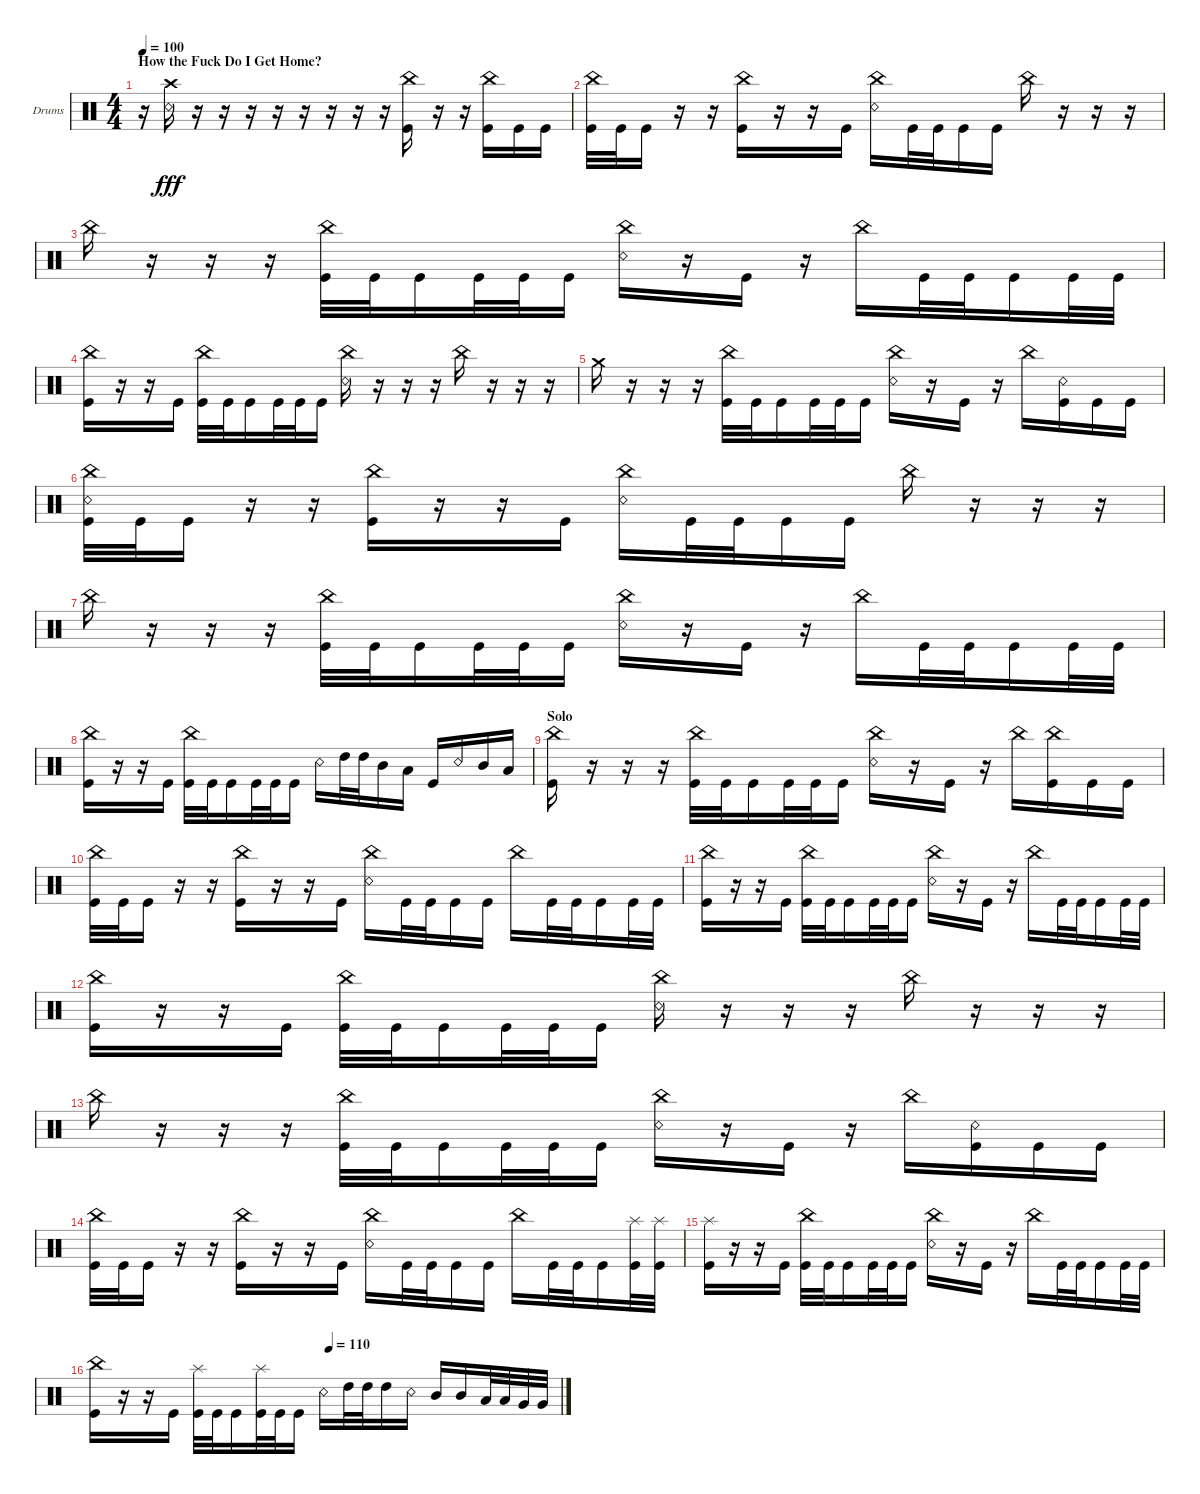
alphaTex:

\defaultSystemsLayout 4
\bracketExtendMode groupsimilarinstruments
\firstSystemTrackNameOrientation horizontal
\otherSystemsTrackNameOrientation horizontal
\track ("Chris Khoury" "Drums") {instrument percussion}
\staff {score}
\articulation defaults
\ts (4 4)
\section ("" "How the Fuck Do I Get Home?")
\tempo 100
\clef neutral
\ks c
r.16{dy fff} ("Snare (rim shot)" "Crash high (hit)").16 r.16 r.16 r.16 r.16 r.16 r.16 r.16 r.16 ("Kick (hit)" "China (hit)").16 r.16 r.16 ("Kick (hit)" "China (hit)").16 "Kick (hit)".16 "Kick (hit)".16 |
("Kick (hit)" "China (hit)").32 "Kick (hit)".32 "Kick (hit)".16 r.16 r.16 ("Kick (hit)" "China (hit)").16 r.16 r.16 "Kick (hit)".16 ("China (hit)" "Snare (rim shot)").16 "Kick (hit)".32 "Kick (hit)".32 "Kick (hit)".16 "Kick (hit)".16 "China (hit)".16 r.16 r.16 r.16 |
"China (hit)".16 r.16 r.16 r.16 ("China (hit)" "Kick (hit)").32 "Kick (hit)".32 "Kick (hit)".16 "Kick (hit)".32 "Kick (hit)".32 "Kick (hit)".16 ("China (hit)" "Snare (rim shot)").16 r.16 "Kick (hit)".16 r.16 "China (hit)".16 "Kick (hit)".32 "Kick (hit)".32 "Kick (hit)".16 "Kick (hit)".32 "Kick (hit)".32 |
("Kick (hit)" "China (hit)").16 r.16 r.16 "Kick (hit)".16 ("China (hit)" "Kick (hit)").32 "Kick (hit)".32 "Kick (hit)".16 "Kick (hit)".32 "Kick (hit)".32 "Kick (hit)".16 ("China (hit)" "Snare (rim shot)").16 r.16 r.16 r.16 "China (hit)".16 r.16 r.16 r.16 |
"Crash medium (hit)".16 r.16 r.16 r.16 ("China (hit)" "Kick (hit)").32 "Kick (hit)".32 "Kick (hit)".16 "Kick (hit)".32 "Kick (hit)".32 "Kick (hit)".16 ("China (hit)" "Snare (rim shot)").16 r.16 "Kick (hit)".16 r.16 "China (hit)".16 ("Snare (rim shot)" "Kick (hit)").16 "Kick (hit)".16 "Kick (hit)".16 |
("Snare (rim shot)" "China (hit)" "Kick (hit)").32 "Kick (hit)".32 "Kick (hit)".16 r.16 r.16 ("China (hit)" "Kick (hit)").16 r.16 r.16 "Kick (hit)".16 ("China (hit)" "Snare (rim shot)").16 "Kick (hit)".32 "Kick (hit)".32 "Kick (hit)".16 "Kick (hit)".16 "China (hit)".16 r.16 r.16 r.16 |
"China (hit)".16 r.16 r.16 r.16 ("China (hit)" "Kick (hit)").32 "Kick (hit)".32 "Kick (hit)".16 "Kick (hit)".32 "Kick (hit)".32 "Kick (hit)".16 ("China (hit)" "Snare (rim shot)").16 r.16 "Kick (hit)".16 r.16 "China (hit)".16 "Kick (hit)".32 "Kick (hit)".32 "Kick (hit)".16 "Kick (hit)".32 "Kick (hit)".32 |
("Kick (hit)" "China (hit)").16 r.16 r.16 "Kick (hit)".16 ("China (hit)" "Kick (hit)").32 "Kick (hit)".32 "Kick (hit)".16 "Kick (hit)".32 "Kick (hit)".32 "Kick (hit)".16 "Snare (rim shot)".16 "High Tom (hit)".32 "High Tom (hit)".32 "Mid Tom (hit)".16 "Low Tom (hit)".16 "Kick (hit)".16 "Snare (rim shot)".16 "Mid Tom (hit)".16 "Low Tom (hit)".16 |
\section ("" "Solo")
("Kick (hit)" "China (hit)").16 r.16 r.16 r.16 ("Kick (hit)" "China (hit)").32 "Kick (hit)".32 "Kick (hit)".16 "Kick (hit)".32 "Kick (hit)".32 "Kick (hit)".16 ("China (hit)" "Snare (rim shot)").16 r.16 "Kick (hit)".16 r.16 "China (hit)".16 ("China (hit)" "Kick (hit)").16 "Kick (hit)".16 "Kick (hit)".16 |
("China (hit)" "Kick (hit)").32 "Kick (hit)".32 "Kick (hit)".16 r.16 r.16 ("China (hit)" "Kick (hit)").16 r.16 r.16 "Kick (hit)".16 ("China (hit)" "Snare (rim shot)").16 "Kick (hit)".32 "Kick (hit)".32 "Kick (hit)".16 "Kick (hit)".16 "China (hit)".16 "Kick (hit)".32 "Kick (hit)".32 "Kick (hit)".16 "Kick (hit)".32 "Kick (hit)".32 |
("Kick (hit)" "China (hit)").16 r.16 r.16 "Kick (hit)".16 ("China (hit)" "Kick (hit)").32 "Kick (hit)".32 "Kick (hit)".16 "Kick (hit)".32 "Kick (hit)".32 "Kick (hit)".16 ("China (hit)" "Snare (rim shot)").16 r.16 "Kick (hit)".16 r.16 "China (hit)".16 "Kick (hit)".32 "Kick (hit)".32 "Kick (hit)".16 "Kick (hit)".32 "Kick (hit)".32 |
("Kick (hit)" "China (hit)").16 r.16 r.16 "Kick (hit)".16 ("Kick (hit)" "China (hit)").32 "Kick (hit)".32 "Kick (hit)".16 "Kick (hit)".32 "Kick (hit)".32 "Kick (hit)".16 ("China (hit)" "Snare (rim shot)").16 r.16 r.16 r.16 "China (hit)".16 r.16 r.16 r.16 |
"China (hit)".16 r.16 r.16 r.16 ("China (hit)" "Kick (hit)").32 "Kick (hit)".32 "Kick (hit)".16 "Kick (hit)".32 "Kick (hit)".32 "Kick (hit)".16 ("China (hit)" "Snare (rim shot)").16 r.16 "Kick (hit)".16 r.16 "China (hit)".16 ("Snare (rim shot)" "Kick (hit)").16 "Kick (hit)".16 "Kick (hit)".16 |
("Kick (hit)" "China (hit)").32 "Kick (hit)".32 "Kick (hit)".16 r.16 r.16 ("China (hit)" "Kick (hit)").16 r.16 r.16 "Kick (hit)".16 ("China (hit)" "Snare (rim shot)").16 "Kick (hit)".32 "Kick (hit)".32 "Kick (hit)".16 "Kick (hit)".16 "China (hit)".16 "Kick (hit)".32 "Kick (hit)".32 "Kick (hit)".16 ("Kick (hit)" "Splash (hit)").32 ("Kick (hit)" "Splash (hit)").32 |
("Kick (hit)" "Splash (hit)").16 r.16 r.16 "Kick (hit)".16 ("Kick (hit)" "China (hit)").32 "Kick (hit)".32 "Kick (hit)".16 "Kick (hit)".32 "Kick (hit)".32 "Kick (hit)".16 ("China (hit)" "Snare (rim shot)").16 r.16 "Kick (hit)".16 r.16 "China (hit)".16 "Kick (hit)".32 "Kick (hit)".32 "Kick (hit)".16 "Kick (hit)".32 "Kick (hit)".32 |
\tempo (110 0.5)
("Kick (hit)" "China (hit)").16 r.16 r.16 "Kick (hit)".16 ("Kick (hit)" "Splash (hit)").32 "Kick (hit)".32 "Kick (hit)".16 ("Kick (hit)" "Splash (hit)").32 "Kick (hit)".32 "Kick (hit)".16 "Snare (rim shot)".16 "High Tom (hit)".32 "High Tom (hit)".32 "High Tom (hit)".16 "Snare (rim shot)".16 "Mid Tom (hit)".16 "Mid Tom (hit)".16 "Low Tom (hit)".32 "Low Tom (hit)".32 "Very Low Tom (hit)".32 "Very Low Tom (hit)".32
